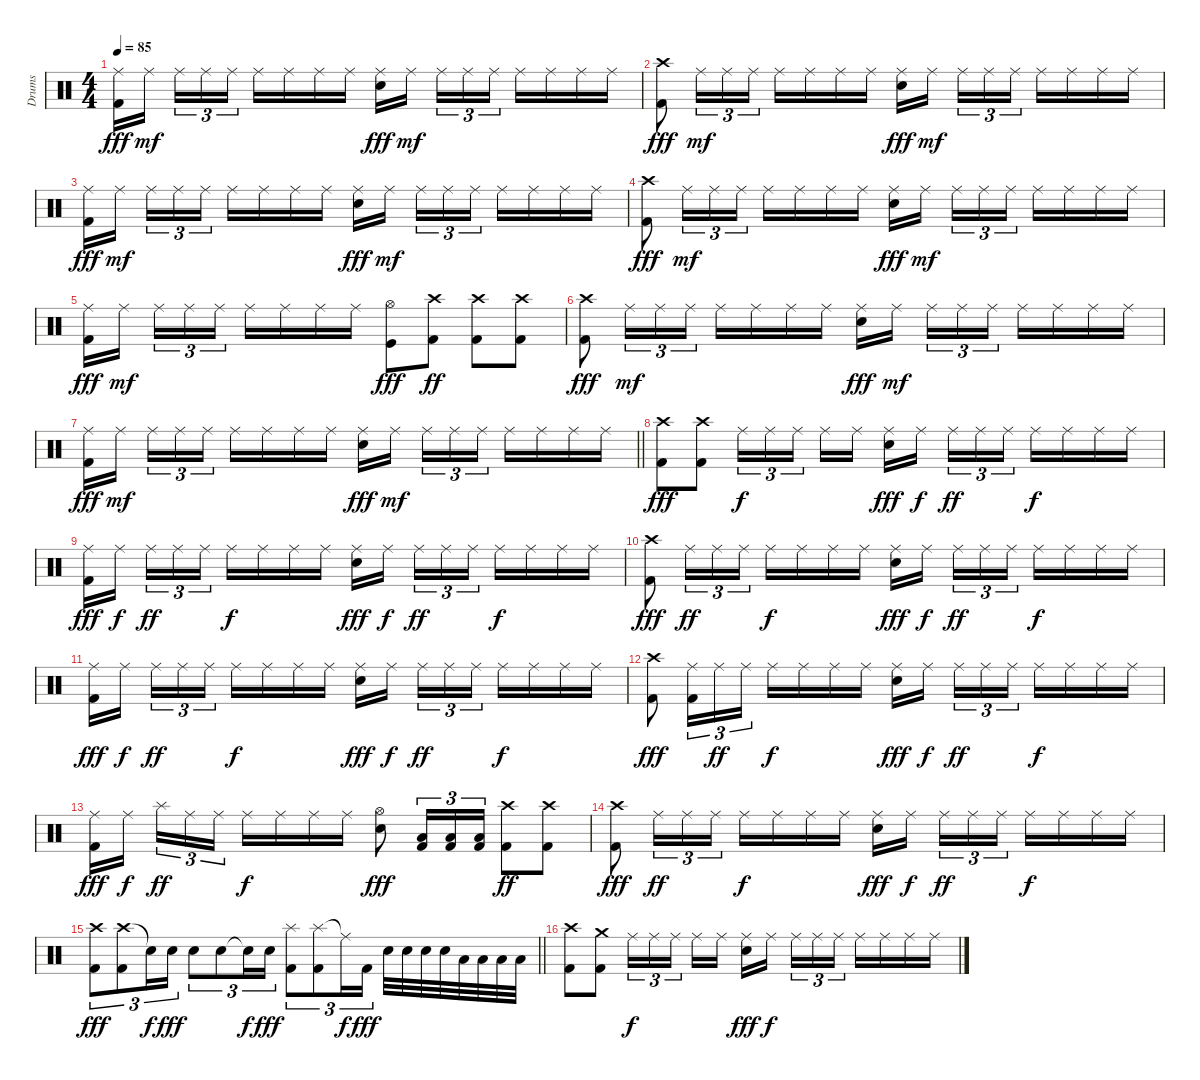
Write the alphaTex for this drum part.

\track ("Drums" "Drums") {instrument percussion}
\staff {score}
\articulation defaults
\ts (4 4)
\tempo 85
\clef neutral
\ks c
("Ride (middle)" "Kick (hit) 2").16{dy fff} "Ride (middle)".16{dy mf beam splitsecondary} "Ride (middle)".16{tu (3 2)} "Ride (middle)".16{tu (3 2)} "Ride (middle)".16{tu (3 2)} "Ride (middle)".16 "Ride (middle)".16 "Ride (middle)".16 "Ride (middle)".16 ("Ride (middle)" "Snare (hit) 2").16{dy fff} "Ride (middle)".16{dy mf beam splitsecondary} "Ride (middle)".16{tu (3 2)} "Ride (middle)".16{tu (3 2)} "Ride (middle)".16{tu (3 2)} "Ride (middle)".16 "Ride (middle)".16 "Ride (middle)".16 "Ride (middle)".16 |
("Crash high (hit)" "Kick (hit) 2").8{dy fff} "Ride (middle)".16{tu (3 2) dy mf} "Ride (middle)".16{tu (3 2)} "Ride (middle)".16{tu (3 2)} "Ride (middle)".16 "Ride (middle)".16 "Ride (middle)".16 "Ride (middle)".16 ("Ride (middle)" "Snare (hit) 2").16{dy fff} "Ride (middle)".16{dy mf beam splitsecondary} "Ride (middle)".16{tu (3 2)} "Ride (middle)".16{tu (3 2)} "Ride (middle)".16{tu (3 2)} "Ride (middle)".16 "Ride (middle)".16 "Ride (middle)".16 "Ride (middle)".16 |
("Ride (middle)" "Kick (hit) 2").16{dy fff} "Ride (middle)".16{dy mf beam splitsecondary} "Ride (middle)".16{tu (3 2)} "Ride (middle)".16{tu (3 2)} "Ride (middle)".16{tu (3 2)} "Ride (middle)".16 "Ride (middle)".16 "Ride (middle)".16 "Ride (middle)".16 ("Ride (middle)" "Snare (hit) 2").16{dy fff} "Ride (middle)".16{dy mf beam splitsecondary} "Ride (middle)".16{tu (3 2)} "Ride (middle)".16{tu (3 2)} "Ride (middle)".16{tu (3 2)} "Ride (middle)".16 "Ride (middle)".16 "Ride (middle)".16 "Ride (middle)".16 |
("Crash high (hit)" "Kick (hit) 2").8{dy fff} "Ride (middle)".16{tu (3 2) dy mf} "Ride (middle)".16{tu (3 2)} "Ride (middle)".16{tu (3 2)} "Ride (middle)".16 "Ride (middle)".16 "Ride (middle)".16 "Ride (middle)".16 ("Ride (middle)" "Snare (hit) 2").16{dy fff} "Ride (middle)".16{dy mf beam splitsecondary} "Ride (middle)".16{tu (3 2)} "Ride (middle)".16{tu (3 2)} "Ride (middle)".16{tu (3 2)} "Ride (middle)".16 "Ride (middle)".16 "Ride (middle)".16 "Ride (middle)".16 |
("Ride (middle)" "Kick (hit) 2").16{dy fff} "Ride (middle)".16{dy mf beam splitsecondary} "Ride (middle)".16{tu (3 2)} "Ride (middle)".16{tu (3 2)} "Ride (middle)".16{tu (3 2)} "Ride (middle)".16 "Ride (middle)".16 "Ride (middle)".16 "Ride (middle)".16 ("Hi-Hat (open)" "Kick (hit)").8{dy fff} ("Crash high (hit)" "Kick (hit) 2").8{dy ff} ("Crash high (hit)" "Kick (hit) 2").8 ("Crash high (hit)" "Kick (hit) 2").8 |
("Crash high (hit)" "Kick (hit) 2").8{dy fff} "Ride (middle)".16{tu (3 2) dy mf} "Ride (middle)".16{tu (3 2)} "Ride (middle)".16{tu (3 2)} "Ride (middle)".16 "Ride (middle)".16 "Ride (middle)".16 "Ride (middle)".16 ("Ride (middle)" "Snare (hit) 2").16{dy fff} "Ride (middle)".16{dy mf beam splitsecondary} "Ride (middle)".16{tu (3 2)} "Ride (middle)".16{tu (3 2)} "Ride (middle)".16{tu (3 2)} "Ride (middle)".16 "Ride (middle)".16 "Ride (middle)".16 "Ride (middle)".16 |
\barLineRight lightlight
("Ride (middle)" "Kick (hit) 2").16{dy fff} "Ride (middle)".16{dy mf beam splitsecondary} "Ride (middle)".16{tu (3 2)} "Ride (middle)".16{tu (3 2)} "Ride (middle)".16{tu (3 2)} "Ride (middle)".16 "Ride (middle)".16 "Ride (middle)".16 "Ride (middle)".16 ("Ride (middle)" "Snare (hit) 2").16{dy fff} "Ride (middle)".16{dy mf beam splitsecondary} "Ride (middle)".16{tu (3 2)} "Ride (middle)".16{tu (3 2)} "Ride (middle)".16{tu (3 2)} "Ride (middle)".16 "Ride (middle)".16 "Ride (middle)".16 "Ride (middle)".16 |
("Crash high (hit)" "Kick (hit) 2").8{dy fff} ("Crash high (hit)" "Kick (hit) 2").8 "Ride (middle)".16{tu (3 2) dy f} "Ride (middle)".16{tu (3 2)} "Ride (middle)".16{tu (3 2) beam splitsecondary} "Ride (middle)".16 "Ride (middle)".16 ("Ride (middle)" "Snare (hit) 2").16{dy fff} "Ride (middle)".16{dy f beam splitsecondary} "Ride (middle)".16{tu (3 2) dy ff} "Ride (middle)".16{tu (3 2)} "Ride (middle)".16{tu (3 2)} "Ride (middle)".16{dy f} "Ride (middle)".16 "Ride (middle)".16 "Ride (middle)".16 |
("Ride (middle)" "Kick (hit) 2").16{dy fff} "Ride (middle)".16{dy f beam splitsecondary} "Ride (middle)".16{tu (3 2) dy ff} "Ride (middle)".16{tu (3 2)} "Ride (middle)".16{tu (3 2)} "Ride (middle)".16{dy f} "Ride (middle)".16 "Ride (middle)".16 "Ride (middle)".16 ("Ride (middle)" "Snare (hit) 2").16{dy fff} "Ride (middle)".16{dy f beam splitsecondary} "Ride (middle)".16{tu (3 2) dy ff} "Ride (middle)".16{tu (3 2)} "Ride (middle)".16{tu (3 2)} "Ride (middle)".16{dy f} "Ride (middle)".16 "Ride (middle)".16 "Ride (middle)".16 |
("Crash high (hit)" "Kick (hit) 2").8{dy fff} "Ride (middle)".16{tu (3 2) dy ff} "Ride (middle)".16{tu (3 2)} "Ride (middle)".16{tu (3 2)} "Ride (middle)".16{dy f} "Ride (middle)".16 "Ride (middle)".16 "Ride (middle)".16 ("Ride (middle)" "Snare (hit) 2").16{dy fff} "Ride (middle)".16{dy f beam splitsecondary} "Ride (middle)".16{tu (3 2) dy ff} "Ride (middle)".16{tu (3 2)} "Ride (middle)".16{tu (3 2)} "Ride (middle)".16{dy f} "Ride (middle)".16 "Ride (middle)".16 "Ride (middle)".16 |
("Ride (middle)" "Kick (hit) 2").16{dy fff} "Ride (middle)".16{dy f beam splitsecondary} "Ride (middle)".16{tu (3 2) dy ff} "Ride (middle)".16{tu (3 2)} "Ride (middle)".16{tu (3 2)} "Ride (middle)".16{dy f} "Ride (middle)".16 "Ride (middle)".16 "Ride (middle)".16 ("Ride (middle)" "Snare (hit) 2").16{dy fff} "Ride (middle)".16{dy f beam splitsecondary} "Ride (middle)".16{tu (3 2) dy ff} "Ride (middle)".16{tu (3 2)} "Ride (middle)".16{tu (3 2)} "Ride (middle)".16{dy f} "Ride (middle)".16 "Ride (middle)".16 "Ride (middle)".16 |
("Crash high (hit)" "Kick (hit) 2").8{dy fff} ("Ride (middle)" "Kick (hit) 2").16{tu (3 2)} "Ride (middle)".16{tu (3 2) dy ff} "Ride (middle)".16{tu (3 2)} "Ride (middle)".16{dy f} "Ride (middle)".16 "Ride (middle)".16 "Ride (middle)".16 ("Ride (middle)" "Snare (hit) 2").16{dy fff} "Ride (middle)".16{dy f beam splitsecondary} "Ride (middle)".16{tu (3 2) dy ff} "Ride (middle)".16{tu (3 2)} "Ride (middle)".16{tu (3 2)} "Ride (middle)".16{dy f} "Ride (middle)".16 "Ride (middle)".16 "Ride (middle)".16 |
("Ride (middle)" "Kick (hit) 2").16{dy fff} "Ride (middle)".16{dy f beam splitsecondary} "Splash (hit)".16{tu (3 2) dy ff} "Ride (middle)".16{tu (3 2)} "Ride (middle)".16{tu (3 2)} "Ride (middle)".16{dy f} "Ride (middle)".16 "Ride (middle)".16 "Ride (middle)".16 ("Hi-Hat (open)" "Snare (hit) 2").8{dy fff} ("Low Tom (hit)" "Kick (hit) 2").16{tu (3 2)} ("Low Tom (hit)" "Kick (hit) 2").16{tu (3 2)} ("Low Tom (hit)" "Kick (hit) 2").16{tu (3 2)} ("Crash high (hit)" "Kick (hit) 2").8{dy ff} ("Crash high (hit)" "Kick (hit) 2").8 |
("Crash high (hit)" "Kick (hit) 2").8{dy fff} "Ride (middle)".16{tu (3 2) dy ff} "Ride (middle)".16{tu (3 2)} "Ride (middle)".16{tu (3 2)} "Ride (middle)".16{dy f} "Ride (middle)".16 "Ride (middle)".16 "Ride (middle)".16 ("Ride (middle)" "Snare (hit) 2").16{dy fff} "Ride (middle)".16{dy f beam splitsecondary} "Ride (middle)".16{tu (3 2) dy ff} "Ride (middle)".16{tu (3 2)} "Ride (middle)".16{tu (3 2)} "Ride (middle)".16{dy f} "Ride (middle)".16 "Ride (middle)".16 "Ride (middle)".16 |
\barLineRight lightlight
("Crash high (hit)" "Kick (hit) 2").8{tu (3 2) dy fff} ("Crash high (hit)" "Kick (hit) 2").8{tu (3 2)} "Snare (hit)"{t}.16{tu (3 2) dy f} "Snare (hit) 2".16{tu (3 2) dy fff} "Snare (hit) 2".8{tu (3 2)} "Snare (hit) 2".8{tu (3 2)} "Snare (hit)"{t}.16{tu (3 2) dy f} "Snare (hit) 2".16{tu (3 2) dy fff} ("Splash (hit)" "Kick (hit) 2").8{tu (3 2)} ("Splash (hit)" "Kick (hit) 2").8{tu (3 2)} "Ride (middle)"{t}.16{tu (3 2) dy f} "Kick (hit) 2".16{tu (3 2) dy fff} "Snare (hit) 2".32 "Snare (hit) 2".32 "Snare (hit) 2".32 "Snare (hit) 2".32 "Low Tom (hit)".32 "Low Tom (hit)".32 "Low Tom (hit)".32 "Low Tom (hit)".32 |
("Crash high (hit)" "Kick (hit) 2").8 ("Crash medium (hit)" "Kick (hit) 2").8 "Ride (middle)".16{tu (3 2) dy f} "Ride (middle)".16{tu (3 2)} "Ride (middle)".16{tu (3 2) beam splitsecondary} "Ride (middle)".16 "Ride (middle)".16 ("Ride (middle)" "Snare (hit) 2").16{dy fff} "Ride (middle)".16{dy f beam splitsecondary} "Ride (middle)".16{tu (3 2)} "Ride (middle)".16{tu (3 2)} "Ride (middle)".16{tu (3 2)} "Ride (middle)".16 "Ride (middle)".16 "Ride (middle)".16 "Ride (middle)".16
